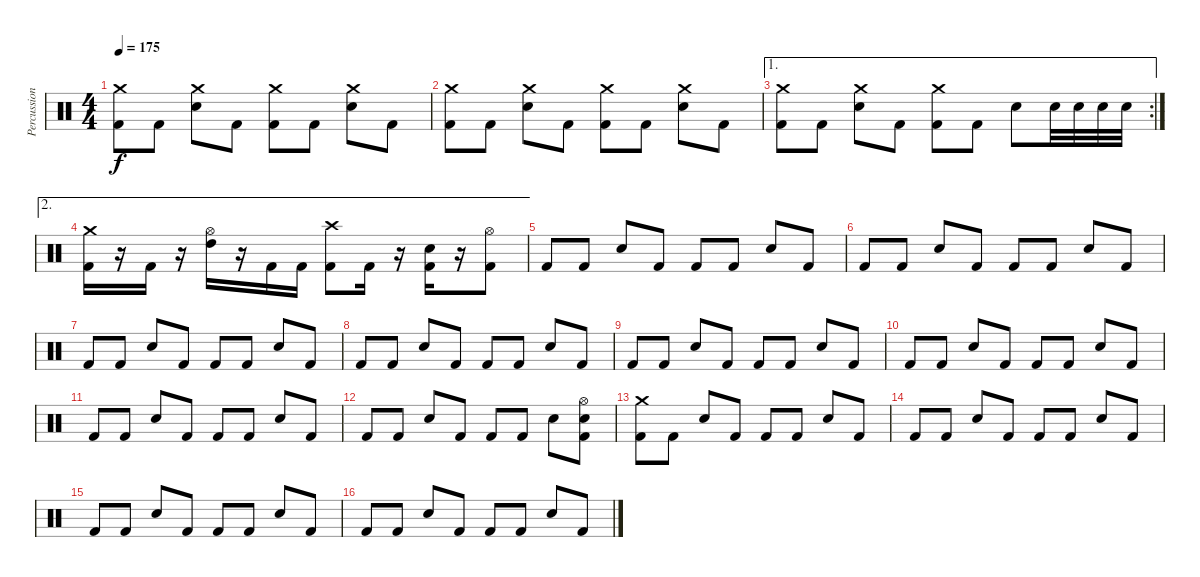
\track ("Percussions" "Percussion") {instrument percussion}
\staff {score}
\articulation defaults
\ts (4 4)
\tempo 175
\clef neutral
\ks c
("Crash medium (hit)" "Kick (hit) 2").8{dy f} "Kick (hit) 2".8 ("Crash medium (hit)" "Snare (hit) 2").8 "Kick (hit) 2".8 ("Crash medium (hit)" "Kick (hit) 2").8 "Kick (hit) 2".8 ("Crash medium (hit)" "Snare (hit) 2").8 "Kick (hit) 2".8 |
("Crash medium (hit)" "Kick (hit) 2").8 "Kick (hit) 2".8 ("Crash medium (hit)" "Snare (hit) 2").8 "Kick (hit) 2".8 ("Crash medium (hit)" "Kick (hit) 2").8 "Kick (hit) 2".8 ("Crash medium (hit)" "Snare (hit) 2").8 "Kick (hit) 2".8 |
\ae 1
\rc 2
("Crash medium (hit)" "Kick (hit) 2").8 "Kick (hit) 2".8 ("Crash medium (hit)" "Snare (hit) 2").8 "Kick (hit) 2".8 ("Crash medium (hit)" "Kick (hit) 2").8 "Kick (hit) 2".8 "Snare (hit) 2".8 "Snare (hit) 2".32 "Snare (hit) 2".32 "Snare (hit) 2".32 "Snare (hit) 2".32 |
\ae 2
("Crash medium (hit)" "Kick (hit) 2").16 r.16 "Kick (hit) 2".16 r.16 ("Hi-Hat (open)" "High Tom (hit)").16 r.16 "Kick (hit) 2".16 "Kick (hit) 2".16 ("Crash high (hit)" "Kick (hit) 2").8 "Kick (hit) 2".16 r.16 ("Snare (hit) 2" "Kick (hit) 2").16 r.16 ("Hi-Hat (open)" "Kick (hit) 2").8 |
"Kick (hit) 2".8 "Kick (hit) 2".8 "Snare (hit) 2".8 "Kick (hit) 2".8 "Kick (hit) 2".8 "Kick (hit) 2".8 "Snare (hit) 2".8 "Kick (hit) 2".8 |
"Kick (hit) 2".8 "Kick (hit) 2".8 "Snare (hit) 2".8 "Kick (hit) 2".8 "Kick (hit) 2".8 "Kick (hit) 2".8 "Snare (hit) 2".8 "Kick (hit) 2".8 |
"Kick (hit) 2".8 "Kick (hit) 2".8 "Snare (hit) 2".8 "Kick (hit) 2".8 "Kick (hit) 2".8 "Kick (hit) 2".8 "Snare (hit) 2".8 "Kick (hit) 2".8 |
"Kick (hit) 2".8 "Kick (hit) 2".8 "Snare (hit) 2".8 "Kick (hit) 2".8 "Kick (hit) 2".8 "Kick (hit) 2".8 "Snare (hit) 2".8 "Kick (hit) 2".8 |
"Kick (hit) 2".8 "Kick (hit) 2".8 "Snare (hit) 2".8 "Kick (hit) 2".8 "Kick (hit) 2".8 "Kick (hit) 2".8 "Snare (hit) 2".8 "Kick (hit) 2".8 |
"Kick (hit) 2".8 "Kick (hit) 2".8 "Snare (hit) 2".8 "Kick (hit) 2".8 "Kick (hit) 2".8 "Kick (hit) 2".8 "Snare (hit) 2".8 "Kick (hit) 2".8 |
"Kick (hit) 2".8 "Kick (hit) 2".8 "Snare (hit) 2".8 "Kick (hit) 2".8 "Kick (hit) 2".8 "Kick (hit) 2".8 "Snare (hit) 2".8 "Kick (hit) 2".8 |
"Kick (hit) 2".8 "Kick (hit) 2".8 "Snare (hit) 2".8 "Kick (hit) 2".8 "Kick (hit) 2".8 "Kick (hit) 2".8 "Snare (hit) 2".8 ("Hi-Hat (open)" "Snare (hit) 2" "Kick (hit) 2").8 |
("Crash medium (hit)" "Kick (hit) 2").8 "Kick (hit) 2".8 "Snare (hit) 2".8 "Kick (hit) 2".8 "Kick (hit) 2".8 "Kick (hit) 2".8 "Snare (hit) 2".8 "Kick (hit) 2".8 |
"Kick (hit) 2".8 "Kick (hit) 2".8 "Snare (hit) 2".8 "Kick (hit) 2".8 "Kick (hit) 2".8 "Kick (hit) 2".8 "Snare (hit) 2".8 "Kick (hit) 2".8 |
"Kick (hit) 2".8 "Kick (hit) 2".8 "Snare (hit) 2".8 "Kick (hit) 2".8 "Kick (hit) 2".8 "Kick (hit) 2".8 "Snare (hit) 2".8 "Kick (hit) 2".8 |
"Kick (hit) 2".8 "Kick (hit) 2".8 "Snare (hit) 2".8 "Kick (hit) 2".8 "Kick (hit) 2".8 "Kick (hit) 2".8 "Snare (hit) 2".8 "Kick (hit) 2".8
